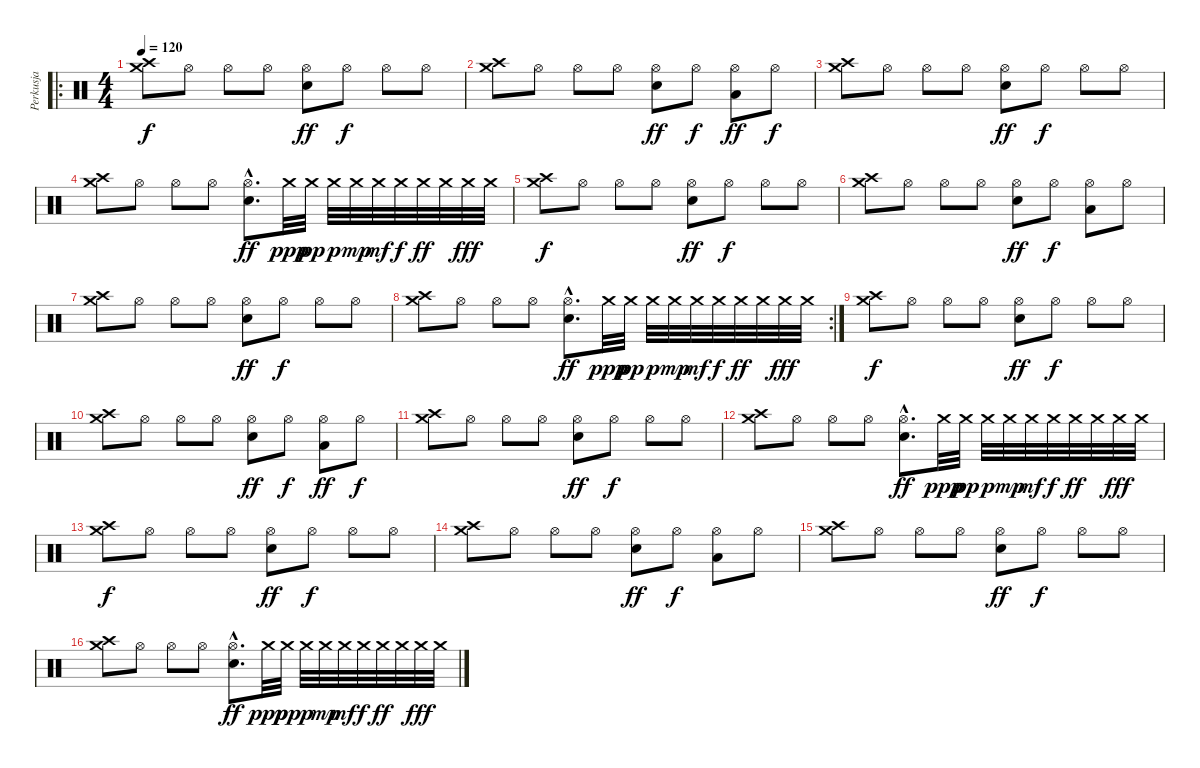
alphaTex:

\track ("Perkusja" "Perkusja") {instrument percussion}
\staff {score}
\articulation defaults
\ro
\ts (4 4)
\tempo 120
\clef neutral
\ks c
("Crash high (hit)" "Crash medium (hit)").8{dy f} "Hi-Hat (open)".8 "Hi-Hat (open)".8 "Hi-Hat (open)".8 ("Hi-Hat (open)" "Snare (hit) 2").8{dy ff} "Hi-Hat (open)".8{dy f} "Hi-Hat (open)".8 "Hi-Hat (open)".8 |
("Crash high (hit)" "Crash medium (hit)").8 "Hi-Hat (open)".8 "Hi-Hat (open)".8 "Hi-Hat (open)".8 ("Hi-Hat (open)" "Snare (hit) 2").8{dy ff} "Hi-Hat (open)".8{dy f} ("Hi-Hat (open)" "Low Tom (hit)").8{dy ff} "Hi-Hat (open)".8{dy f} |
("Crash high (hit)" "Crash medium (hit)").8 "Hi-Hat (open)".8 "Hi-Hat (open)".8 "Hi-Hat (open)".8 ("Hi-Hat (open)" "Snare (hit) 2").8{dy ff} "Hi-Hat (open)".8{dy f} "Hi-Hat (open)".8 "Hi-Hat (open)".8 |
("Crash high (hit)" "Crash medium (hit)").8 "Hi-Hat (open)".8 "Hi-Hat (open)".8 "Hi-Hat (open)".8 ("Hi-Hat (open)"{hac} "Snare (hit) 2"{hac}).8{d dy ff} "Crash medium (hit)".32{dy ppp} "Crash medium (hit)".32{dy pp} "Crash medium (hit)".32{dy p} "Crash medium (hit)".32{dy mp} "Crash medium (hit)".32{dy mf} "Crash medium (hit)".32{dy f} "Crash medium (hit)".32{dy ff} "Crash medium (hit)".32 "Crash medium (hit)".32{dy fff} "Crash medium (hit)".32 |
("Crash high (hit)" "Crash medium (hit)").8{dy f} "Hi-Hat (open)".8 "Hi-Hat (open)".8 "Hi-Hat (open)".8 ("Hi-Hat (open)" "Snare (hit) 2").8{dy ff} "Hi-Hat (open)".8{dy f} "Hi-Hat (open)".8 "Hi-Hat (open)".8 |
("Crash high (hit)" "Crash medium (hit)").8 "Hi-Hat (open)".8 "Hi-Hat (open)".8 "Hi-Hat (open)".8 ("Hi-Hat (open)" "Snare (hit) 2").8{dy ff} "Hi-Hat (open)".8{dy f} ("Hi-Hat (open)" "Low Tom (hit)").8 "Hi-Hat (open)".8 |
("Crash high (hit)" "Crash medium (hit)").8 "Hi-Hat (open)".8 "Hi-Hat (open)".8 "Hi-Hat (open)".8 ("Hi-Hat (open)" "Snare (hit) 2").8{dy ff} "Hi-Hat (open)".8{dy f} "Hi-Hat (open)".8 "Hi-Hat (open)".8 |
\rc 2
("Crash high (hit)" "Crash medium (hit)").8 "Hi-Hat (open)".8 "Hi-Hat (open)".8 "Hi-Hat (open)".8 ("Hi-Hat (open)"{hac} "Snare (hit) 2"{hac}).8{d dy ff} "Crash medium (hit)".32{dy ppp} "Crash medium (hit)".32{dy pp} "Crash medium (hit)".32{dy p} "Crash medium (hit)".32{dy mp} "Crash medium (hit)".32{dy mf} "Crash medium (hit)".32{dy f} "Crash medium (hit)".32{dy ff} "Crash medium (hit)".32 "Crash medium (hit)".32{dy fff} "Crash medium (hit)".32 |
("Crash high (hit)" "Crash medium (hit)").8{dy f} "Hi-Hat (open)".8 "Hi-Hat (open)".8 "Hi-Hat (open)".8 ("Hi-Hat (open)" "Snare (hit) 2").8{dy ff} "Hi-Hat (open)".8{dy f} "Hi-Hat (open)".8 "Hi-Hat (open)".8 |
("Crash high (hit)" "Crash medium (hit)").8 "Hi-Hat (open)".8 "Hi-Hat (open)".8 "Hi-Hat (open)".8 ("Hi-Hat (open)" "Snare (hit) 2").8{dy ff} "Hi-Hat (open)".8{dy f} ("Hi-Hat (open)" "Low Tom (hit)").8{dy ff} "Hi-Hat (open)".8{dy f} |
("Crash high (hit)" "Crash medium (hit)").8 "Hi-Hat (open)".8 "Hi-Hat (open)".8 "Hi-Hat (open)".8 ("Hi-Hat (open)" "Snare (hit) 2").8{dy ff} "Hi-Hat (open)".8{dy f} "Hi-Hat (open)".8 "Hi-Hat (open)".8 |
("Crash high (hit)" "Crash medium (hit)").8 "Hi-Hat (open)".8 "Hi-Hat (open)".8 "Hi-Hat (open)".8 ("Hi-Hat (open)"{hac} "Snare (hit) 2"{hac}).8{d dy ff} "Crash medium (hit)".32{dy ppp} "Crash medium (hit)".32{dy pp} "Crash medium (hit)".32{dy p} "Crash medium (hit)".32{dy mp} "Crash medium (hit)".32{dy mf} "Crash medium (hit)".32{dy f} "Crash medium (hit)".32{dy ff} "Crash medium (hit)".32 "Crash medium (hit)".32{dy fff} "Crash medium (hit)".32 |
("Crash high (hit)" "Crash medium (hit)").8{dy f} "Hi-Hat (open)".8 "Hi-Hat (open)".8 "Hi-Hat (open)".8 ("Hi-Hat (open)" "Snare (hit) 2").8{dy ff} "Hi-Hat (open)".8{dy f} "Hi-Hat (open)".8 "Hi-Hat (open)".8 |
("Crash high (hit)" "Crash medium (hit)").8 "Hi-Hat (open)".8 "Hi-Hat (open)".8 "Hi-Hat (open)".8 ("Hi-Hat (open)" "Snare (hit) 2").8{dy ff} "Hi-Hat (open)".8{dy f} ("Hi-Hat (open)" "Low Tom (hit)").8 "Hi-Hat (open)".8 |
("Crash high (hit)" "Crash medium (hit)").8 "Hi-Hat (open)".8 "Hi-Hat (open)".8 "Hi-Hat (open)".8 ("Hi-Hat (open)" "Snare (hit) 2").8{dy ff} "Hi-Hat (open)".8{dy f} "Hi-Hat (open)".8 "Hi-Hat (open)".8 |
("Crash high (hit)" "Crash medium (hit)").8 "Hi-Hat (open)".8 "Hi-Hat (open)".8 "Hi-Hat (open)".8 ("Hi-Hat (open)"{hac} "Snare (hit) 2"{hac}).8{d dy ff} "Crash medium (hit)".32{dy ppp} "Crash medium (hit)".32{dy pp} "Crash medium (hit)".32{dy p} "Crash medium (hit)".32{dy mp} "Crash medium (hit)".32{dy mf} "Crash medium (hit)".32{dy f} "Crash medium (hit)".32{dy ff} "Crash medium (hit)".32 "Crash medium (hit)".32{dy fff} "Crash medium (hit)".32
